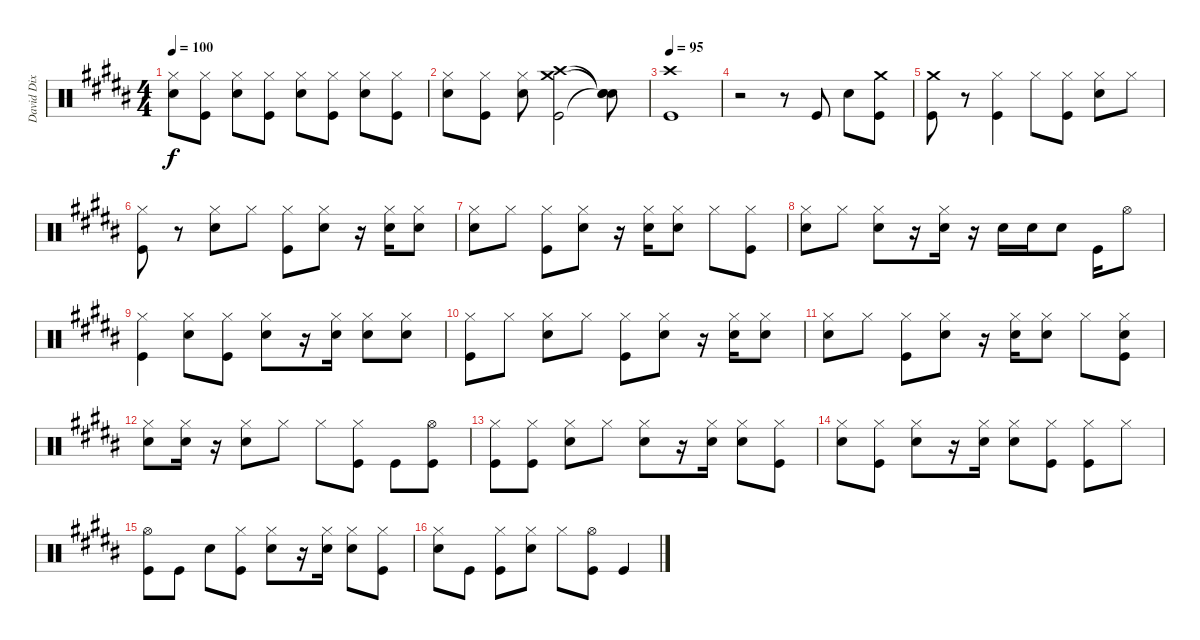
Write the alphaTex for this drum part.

\track ("David Dix Drums" "David Dix ") {instrument percussion}
\staff {score}
\articulation defaults
\ts (4 4)
\tempo 100
\clef neutral
\ks g#minor
("Hi-Hat (closed)" "Snare (hit) 2").8{dy f} ("Hi-Hat (closed)" "Kick (hit)").8 ("Hi-Hat (closed)" "Snare (hit) 2").8 ("Hi-Hat (closed)" "Kick (hit)").8 ("Hi-Hat (closed)" "Snare (hit) 2").8 ("Hi-Hat (closed)" "Kick (hit)").8 ("Hi-Hat (closed)" "Snare (hit) 2").8 ("Hi-Hat (closed)" "Kick (hit)").8 |
("Hi-Hat (closed)" "Snare (hit) 2").8 ("Hi-Hat (closed)" "Kick (hit)").8 ("Hi-Hat (closed)" "Snare (hit) 2").8 ("Crash high (hit)" "Crash medium (hit)" "Kick (hit)").2 ("Snare (hit)"{t} "Snare (hit)"{t} "Snare (hit)"{t}).8 |
\tempo 95
("Crash high (hit)" "Kick (hit)").1 |
r.2 r.8 "Kick (hit)".8 "Snare (hit) 2".8 ("Crash medium (hit)" "Kick (hit)").8 |
("Crash medium (hit)" "Kick (hit)").8 r.8 ("Hi-Hat (closed)" "Kick (hit)").4{volume 10} "Hi-Hat (closed)".8 ("Hi-Hat (closed)" "Kick (hit)").8 ("Hi-Hat (closed)" "Snare (hit) 2").8 "Hi-Hat (closed)".8 |
("Hi-Hat (closed)" "Kick (hit)").8 r.8 ("Hi-Hat (closed)" "Snare (hit) 2").8 "Hi-Hat (closed)".8 ("Hi-Hat (closed)" "Kick (hit)").8 ("Hi-Hat (closed)" "Snare (hit) 2").8{volume 6} r.16 ("Hi-Hat (closed)" "Snare (hit) 2").16 ("Hi-Hat (closed)" "Snare (hit) 2").8 |
("Hi-Hat (closed)" "Snare (hit) 2").8{volume 10} "Hi-Hat (closed)".8 ("Hi-Hat (closed)" "Kick (hit)").8 ("Hi-Hat (closed)" "Snare (hit) 2").8{volume 8} r.16 ("Hi-Hat (closed)" "Snare (hit) 2").16 ("Hi-Hat (closed)" "Snare (hit) 2").8{volume 9} "Hi-Hat (closed)".8 ("Hi-Hat (closed)" "Kick (hit)").8 |
("Hi-Hat (closed)" "Snare (hit) 2").8 "Hi-Hat (closed)".8 ("Hi-Hat (closed)" "Snare (hit) 2").8 r.16 ("Hi-Hat (closed)" "Snare (hit) 2").16 r.16 "Snare (hit) 2".16 "Snare (hit) 2".16 "Snare (hit) 2".8 "Kick (hit)".16 "Hi-Hat (open)".8 |
("Hi-Hat (closed)" "Kick (hit)").4{volume 10} ("Hi-Hat (closed)" "Snare (hit) 2").8 ("Hi-Hat (closed)" "Kick (hit)").8 ("Hi-Hat (closed)" "Snare (hit) 2").8 r.16 ("Hi-Hat (closed)" "Snare (hit) 2").16 ("Hi-Hat (closed)" "Snare (hit) 2").8 ("Hi-Hat (closed)" "Snare (hit) 2").8 |
("Hi-Hat (closed)" "Kick (hit)").8 "Hi-Hat (closed)".8 ("Hi-Hat (closed)" "Snare (hit) 2").8 "Hi-Hat (closed)".8 ("Hi-Hat (closed)" "Kick (hit)").8 ("Hi-Hat (closed)" "Snare (hit) 2").8{volume 6} r.16 ("Hi-Hat (closed)" "Snare (hit) 2").16 ("Hi-Hat (closed)" "Snare (hit) 2").8 |
("Hi-Hat (closed)" "Snare (hit) 2").8{volume 10} "Hi-Hat (closed)".8 ("Hi-Hat (closed)" "Kick (hit)").8 ("Hi-Hat (closed)" "Snare (hit) 2").8{volume 8} r.16 ("Hi-Hat (closed)" "Snare (hit) 2").16 ("Hi-Hat (closed)" "Snare (hit) 2").8{volume 9} "Hi-Hat (closed)".8 ("Hi-Hat (closed)" "Snare (hit) 2" "Kick (hit)").8 |
("Hi-Hat (closed)" "Snare (hit) 2").8 ("Hi-Hat (closed)" "Snare (hit) 2").16 r.16 ("Hi-Hat (closed)" "Snare (hit) 2").8 "Hi-Hat (closed)".8 "Hi-Hat (closed)".8 ("Hi-Hat (closed)" "Kick (hit)").8 "Kick (hit)".8 ("Hi-Hat (open)" "Kick (hit)").8 |
("Hi-Hat (closed)" "Kick (hit)").8 ("Hi-Hat (closed)" "Kick (hit)").8 ("Hi-Hat (closed)" "Snare (hit) 2").8 "Hi-Hat (closed)".8 ("Hi-Hat (closed)" "Snare (hit) 2").8{volume 8} r.16 ("Hi-Hat (closed)" "Snare (hit) 2").16 ("Hi-Hat (closed)" "Snare (hit) 2").8{volume 9} ("Hi-Hat (closed)" "Kick (hit)").8 |
("Hi-Hat (closed)" "Snare (hit) 2").8 ("Hi-Hat (closed)" "Kick (hit)").8 ("Hi-Hat (closed)" "Snare (hit) 2").8{volume 8} r.16 ("Hi-Hat (closed)" "Snare (hit) 2").16 ("Hi-Hat (closed)" "Snare (hit) 2").8{volume 9} ("Hi-Hat (closed)" "Kick (hit)").8 ("Hi-Hat (closed)" "Kick (hit)").8 "Hi-Hat (closed)".8 |
("Hi-Hat (open)" "Kick (hit)").8 "Kick (hit)".8 "Snare (hit) 2".8 ("Hi-Hat (closed)" "Kick (hit)").8 ("Hi-Hat (closed)" "Snare (hit) 2").8{volume 8} r.16 ("Hi-Hat (closed)" "Snare (hit) 2").16 ("Hi-Hat (closed)" "Snare (hit) 2").8{volume 9} ("Hi-Hat (closed)" "Kick (hit)").8 |
("Hi-Hat (closed)" "Snare (hit) 2").8 "Kick (hit)".8 ("Hi-Hat (closed)" "Kick (hit)").8 ("Hi-Hat (closed)" "Snare (hit) 2").8 "Hi-Hat (closed)".8 ("Hi-Hat (open)" "Kick (hit)").8 "Kick (hit)".4
